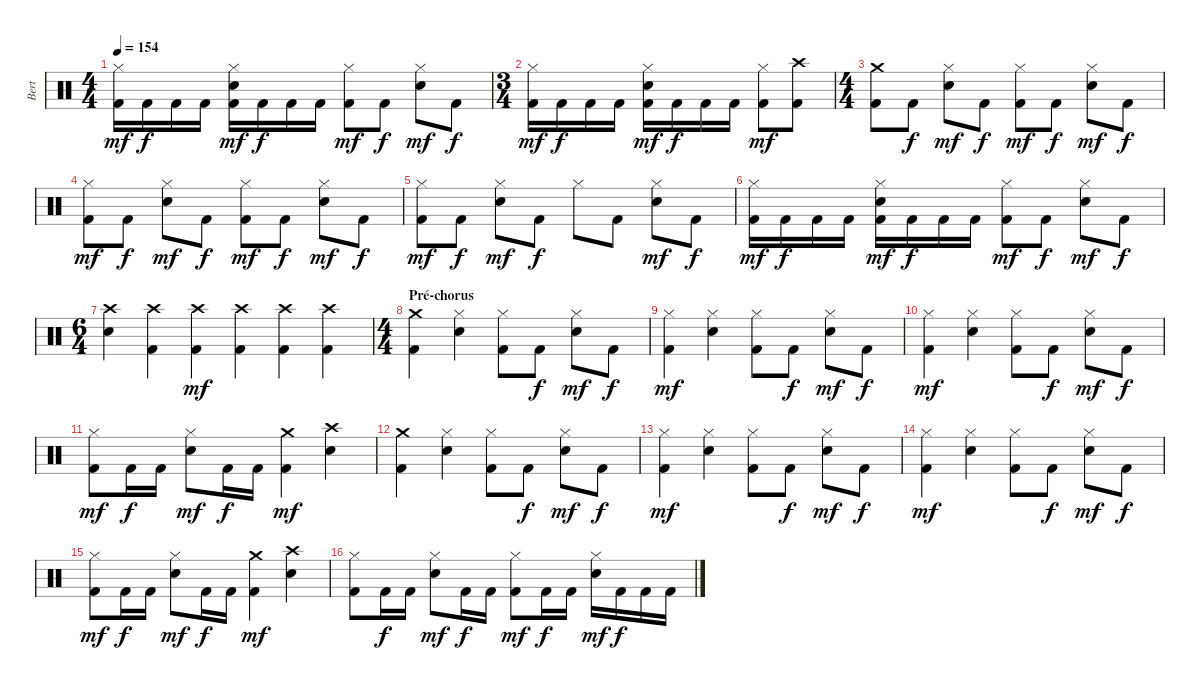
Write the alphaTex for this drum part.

\track ("Bert" "Bert") {instrument percussion}
\staff {score}
\articulation defaults
\ts (4 4)
\tempo 154
\clef neutral
\ks c
("Hi-Hat (closed)" "Kick (hit) 2").16{dy mf} "Kick (hit) 2".16{dy f} "Kick (hit) 2".16 "Kick (hit) 2".16 ("Hi-Hat (closed)" "Snare (hit) 2" "Kick (hit) 2").16{dy mf} "Kick (hit) 2".16{dy f} "Kick (hit) 2".16 "Kick (hit) 2".16 ("Hi-Hat (closed)" "Kick (hit) 2").8{dy mf} "Kick (hit) 2".8{dy f} ("Hi-Hat (closed)" "Snare (hit) 2").8{dy mf} "Kick (hit) 2".8{dy f} |
\ts (3 4)
("Hi-Hat (closed)" "Kick (hit) 2").16{dy mf} "Kick (hit) 2".16{dy f} "Kick (hit) 2".16 "Kick (hit) 2".16 ("Hi-Hat (closed)" "Snare (hit) 2" "Kick (hit) 2").16{dy mf} "Kick (hit) 2".16{dy f} "Kick (hit) 2".16 "Kick (hit) 2".16 ("Hi-Hat (closed)" "Kick (hit) 2").8{dy mf} ("Crash high (hit)" "Kick (hit) 2").8 |
\ts (4 4)
("Crash medium (hit)" "Kick (hit) 2").8 "Kick (hit) 2".8{dy f} ("Hi-Hat (closed)" "Snare (hit) 2").8{dy mf} "Kick (hit) 2".8{dy f} ("Hi-Hat (closed)" "Kick (hit) 2").8{dy mf} "Kick (hit) 2".8{dy f} ("Hi-Hat (closed)" "Snare (hit) 2").8{dy mf} "Kick (hit) 2".8{dy f} |
("Hi-Hat (closed)" "Kick (hit) 2").8{dy mf} "Kick (hit) 2".8{dy f} ("Hi-Hat (closed)" "Snare (hit) 2").8{dy mf} "Kick (hit) 2".8{dy f} ("Hi-Hat (closed)" "Kick (hit) 2").8{dy mf} "Kick (hit) 2".8{dy f} ("Hi-Hat (closed)" "Snare (hit) 2").8{dy mf} "Kick (hit) 2".8{dy f} |
("Hi-Hat (closed)" "Kick (hit) 2").8{dy mf} "Kick (hit) 2".8{dy f} ("Hi-Hat (closed)" "Snare (hit) 2").8{dy mf} "Kick (hit) 2".8{dy f} "Hi-Hat (closed)".8 "Kick (hit) 2".8 ("Hi-Hat (closed)" "Snare (hit) 2").8{dy mf} "Kick (hit) 2".8{dy f} |
("Hi-Hat (closed)" "Kick (hit) 2").16{dy mf} "Kick (hit) 2".16{dy f} "Kick (hit) 2".16 "Kick (hit) 2".16 ("Hi-Hat (closed)" "Snare (hit) 2" "Kick (hit) 2").16{dy mf} "Kick (hit) 2".16{dy f} "Kick (hit) 2".16 "Kick (hit) 2".16 ("Hi-Hat (closed)" "Kick (hit) 2").8{dy mf} "Kick (hit) 2".8{dy f} ("Hi-Hat (closed)" "Snare (hit) 2").8{dy mf} "Kick (hit) 2".8{dy f} |
\ts (6 4)
("Crash high (hit)" "Snare (hit) 2").4 ("Crash high (hit)" "Kick (hit) 2").4 ("Crash high (hit)" "Kick (hit) 2").4{dy mf} ("Crash high (hit)" "Kick (hit) 2").4 ("Crash high (hit)" "Kick (hit) 2").4 ("Crash high (hit)" "Kick (hit) 2").4 |
\ts (4 4)
\section ("" "Pré-chorus")
("Crash medium (hit)" "Kick (hit) 2").4 ("Hi-Hat (closed)" "Snare (hit) 2").4 ("Hi-Hat (closed)" "Kick (hit) 2").8 "Kick (hit) 2".8{dy f} ("Hi-Hat (closed)" "Snare (hit) 2").8{dy mf} "Kick (hit) 2".8{dy f} |
("Hi-Hat (closed)" "Kick (hit) 2").4{dy mf} ("Hi-Hat (closed)" "Snare (hit) 2").4 ("Hi-Hat (closed)" "Kick (hit) 2").8 "Kick (hit) 2".8{dy f} ("Hi-Hat (closed)" "Snare (hit) 2").8{dy mf} "Kick (hit) 2".8{dy f} |
("Hi-Hat (closed)" "Kick (hit) 2").4{dy mf} ("Hi-Hat (closed)" "Snare (hit) 2").4 ("Hi-Hat (closed)" "Kick (hit) 2").8 "Kick (hit) 2".8{dy f} ("Hi-Hat (closed)" "Snare (hit) 2").8{dy mf} "Kick (hit) 2".8{dy f} |
("Hi-Hat (closed)" "Kick (hit) 2").8{dy mf} "Kick (hit) 2".16{dy f} "Kick (hit) 2".16 ("Hi-Hat (closed)" "Snare (hit) 2").8{dy mf} "Kick (hit) 2".16{dy f} "Kick (hit) 2".16 ("Crash medium (hit)" "Kick (hit) 2").4{dy mf} ("Crash high (hit)" "Snare (hit) 2").4 |
("Crash medium (hit)" "Kick (hit) 2").4 ("Hi-Hat (closed)" "Snare (hit) 2").4 ("Hi-Hat (closed)" "Kick (hit) 2").8 "Kick (hit) 2".8{dy f} ("Hi-Hat (closed)" "Snare (hit) 2").8{dy mf} "Kick (hit) 2".8{dy f} |
("Hi-Hat (closed)" "Kick (hit) 2").4{dy mf} ("Hi-Hat (closed)" "Snare (hit) 2").4 ("Hi-Hat (closed)" "Kick (hit) 2").8 "Kick (hit) 2".8{dy f} ("Hi-Hat (closed)" "Snare (hit) 2").8{dy mf} "Kick (hit) 2".8{dy f} |
("Hi-Hat (closed)" "Kick (hit) 2").4{dy mf} ("Hi-Hat (closed)" "Snare (hit) 2").4 ("Hi-Hat (closed)" "Kick (hit) 2").8 "Kick (hit) 2".8{dy f} ("Hi-Hat (closed)" "Snare (hit) 2").8{dy mf} "Kick (hit) 2".8{dy f} |
("Hi-Hat (closed)" "Kick (hit) 2").8{dy mf} "Kick (hit) 2".16{dy f} "Kick (hit) 2".16 ("Hi-Hat (closed)" "Snare (hit) 2").8{dy mf} "Kick (hit) 2".16{dy f} "Kick (hit) 2".16 ("Crash medium (hit)" "Kick (hit) 2").4{dy mf} ("Crash high (hit)" "Snare (hit) 2").4 |
("Hi-Hat (closed)" "Kick (hit) 2").8 "Kick (hit) 2".16{dy f} "Kick (hit) 2".16 ("Hi-Hat (closed)" "Snare (hit) 2").8{dy mf} "Kick (hit) 2".16{dy f} "Kick (hit) 2".16 ("Hi-Hat (closed)" "Kick (hit) 2").8{dy mf} "Kick (hit) 2".16{dy f} "Kick (hit) 2".16 ("Hi-Hat (closed)" "Snare (hit) 2").16{dy mf} "Kick (hit) 2".16{dy f} "Kick (hit) 2".16 "Kick (hit) 2".16
